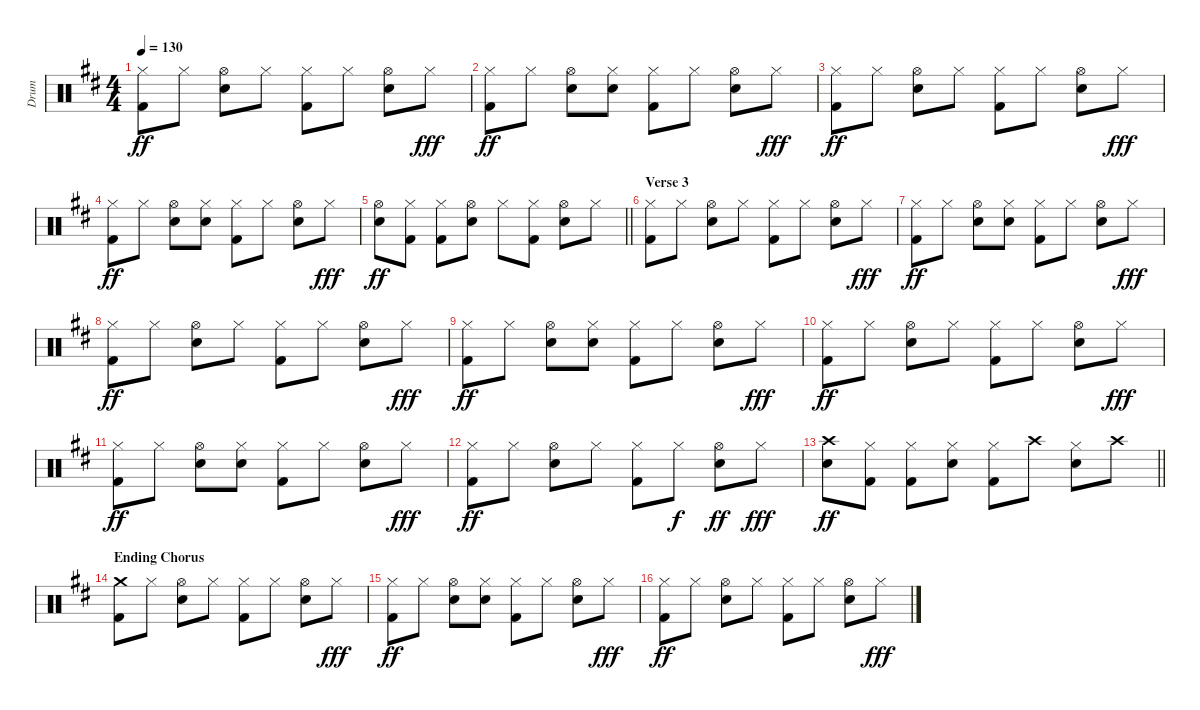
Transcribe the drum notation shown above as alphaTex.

\track ("Drum" "Drum") {instrument percussion}
\staff {score}
\articulation defaults
\ts (4 4)
\tempo 130
\clef neutral
\ks d
("Hi-Hat (closed)" "Kick (hit) 2").8{dy ff} "Hi-Hat (closed)".8 ("Hi-Hat (open)" "Electric Snare (hit)").8 "Hi-Hat (closed)".8 ("Hi-Hat (closed)" "Kick (hit) 2").8 "Hi-Hat (closed)".8 ("Hi-Hat (open)" "Electric Snare (hit)").8 "Hi-Hat (closed)".8{dy fff} |
("Hi-Hat (closed)" "Kick (hit) 2").8{dy ff} "Hi-Hat (closed)".8 ("Hi-Hat (open)" "Electric Snare (hit)").8 ("Hi-Hat (closed)" "Electric Snare (hit)").8 ("Hi-Hat (closed)" "Kick (hit) 2").8 "Hi-Hat (closed)".8 ("Hi-Hat (open)" "Electric Snare (hit)").8 "Hi-Hat (closed)".8{dy fff} |
("Hi-Hat (closed)" "Kick (hit) 2").8{dy ff} "Hi-Hat (closed)".8 ("Hi-Hat (open)" "Electric Snare (hit)").8 "Hi-Hat (closed)".8 ("Hi-Hat (closed)" "Kick (hit) 2").8 "Hi-Hat (closed)".8 ("Hi-Hat (open)" "Electric Snare (hit)").8 "Hi-Hat (closed)".8{dy fff} |
("Hi-Hat (closed)" "Kick (hit) 2").8{dy ff} "Hi-Hat (closed)".8 ("Hi-Hat (open)" "Electric Snare (hit)").8 ("Hi-Hat (closed)" "Electric Snare (hit)").8 ("Hi-Hat (closed)" "Kick (hit) 2").8 "Hi-Hat (closed)".8 ("Hi-Hat (open)" "Electric Snare (hit)").8 "Hi-Hat (closed)".8{dy fff} |
\barLineRight lightlight
("Hi-Hat (open)" "Electric Snare (hit)").8{dy ff} ("Hi-Hat (closed)" "Kick (hit) 2").8 ("Hi-Hat (closed)" "Kick (hit) 2").8 ("Hi-Hat (open)" "Electric Snare (hit)").8 "Hi-Hat (closed)".8 ("Hi-Hat (closed)" "Kick (hit) 2").8 ("Hi-Hat (open)" "Electric Snare (hit)").8 "Hi-Hat (closed)".8 |
\section ("" "Verse 3")
("Hi-Hat (closed)" "Kick (hit) 2").8 "Hi-Hat (closed)".8 ("Hi-Hat (open)" "Electric Snare (hit)").8 "Hi-Hat (closed)".8 ("Hi-Hat (closed)" "Kick (hit) 2").8 "Hi-Hat (closed)".8 ("Hi-Hat (open)" "Electric Snare (hit)").8 "Hi-Hat (closed)".8{dy fff} |
("Hi-Hat (closed)" "Kick (hit) 2").8{dy ff} "Hi-Hat (closed)".8 ("Hi-Hat (open)" "Electric Snare (hit)").8 ("Hi-Hat (closed)" "Electric Snare (hit)").8 ("Hi-Hat (closed)" "Kick (hit) 2").8 "Hi-Hat (closed)".8 ("Hi-Hat (open)" "Electric Snare (hit)").8 "Hi-Hat (closed)".8{dy fff} |
("Hi-Hat (closed)" "Kick (hit) 2").8{dy ff} "Hi-Hat (closed)".8 ("Hi-Hat (open)" "Electric Snare (hit)").8 "Hi-Hat (closed)".8 ("Hi-Hat (closed)" "Kick (hit) 2").8 "Hi-Hat (closed)".8 ("Hi-Hat (open)" "Electric Snare (hit)").8 "Hi-Hat (closed)".8{dy fff} |
("Hi-Hat (closed)" "Kick (hit) 2").8{dy ff} "Hi-Hat (closed)".8 ("Hi-Hat (open)" "Electric Snare (hit)").8 ("Hi-Hat (closed)" "Electric Snare (hit)").8 ("Hi-Hat (closed)" "Kick (hit) 2").8 "Hi-Hat (closed)".8 ("Hi-Hat (open)" "Electric Snare (hit)").8 "Hi-Hat (closed)".8{dy fff} |
("Hi-Hat (closed)" "Kick (hit) 2").8{dy ff} "Hi-Hat (closed)".8 ("Hi-Hat (open)" "Electric Snare (hit)").8 "Hi-Hat (closed)".8 ("Hi-Hat (closed)" "Kick (hit) 2").8 "Hi-Hat (closed)".8 ("Hi-Hat (open)" "Electric Snare (hit)").8 "Hi-Hat (closed)".8{dy fff} |
("Hi-Hat (closed)" "Kick (hit) 2").8{dy ff} "Hi-Hat (closed)".8 ("Hi-Hat (open)" "Electric Snare (hit)").8 ("Hi-Hat (closed)" "Electric Snare (hit)").8 ("Hi-Hat (closed)" "Kick (hit) 2").8 "Hi-Hat (closed)".8 ("Hi-Hat (open)" "Electric Snare (hit)").8 "Hi-Hat (closed)".8{dy fff} |
("Hi-Hat (closed)" "Kick (hit) 2").8{dy ff} "Hi-Hat (closed)".8 ("Hi-Hat (open)" "Electric Snare (hit)").8 "Hi-Hat (closed)".8 ("Hi-Hat (closed)" "Kick (hit) 2").8 "Hi-Hat (closed)".8{dy f} ("Hi-Hat (open)" "Electric Snare (hit)").8{dy ff} "Hi-Hat (closed)".8{dy fff} |
\barLineRight lightlight
("Crash high (hit)" "Electric Snare (hit)").8{dy ff} ("Hi-Hat (closed)" "Kick (hit) 2").8 ("Hi-Hat (closed)" "Kick (hit) 2").8 ("Hi-Hat (closed)" "Electric Snare (hit)").8 ("Hi-Hat (closed)" "Kick (hit) 2").8 "Crash high (hit)".8 ("Hi-Hat (closed)" "Electric Snare (hit)").8 "Crash high (hit)".8 |
\section ("" "Ending Chorus")
("Crash medium (hit)" "Kick (hit) 2").8 "Hi-Hat (closed)".8 ("Hi-Hat (open)" "Electric Snare (hit)").8 "Hi-Hat (closed)".8 ("Hi-Hat (closed)" "Kick (hit) 2").8 "Hi-Hat (closed)".8 ("Hi-Hat (open)" "Electric Snare (hit)").8 "Hi-Hat (closed)".8{dy fff} |
("Hi-Hat (closed)" "Kick (hit) 2").8{dy ff} "Hi-Hat (closed)".8 ("Hi-Hat (open)" "Electric Snare (hit)").8 ("Hi-Hat (closed)" "Electric Snare (hit)").8 ("Hi-Hat (closed)" "Kick (hit) 2").8 "Hi-Hat (closed)".8 ("Hi-Hat (open)" "Electric Snare (hit)").8 "Hi-Hat (closed)".8{dy fff} |
("Hi-Hat (closed)" "Kick (hit) 2").8{dy ff} "Hi-Hat (closed)".8 ("Hi-Hat (open)" "Electric Snare (hit)").8 "Hi-Hat (closed)".8 ("Hi-Hat (closed)" "Kick (hit) 2").8 "Hi-Hat (closed)".8 ("Hi-Hat (open)" "Electric Snare (hit)").8 "Hi-Hat (closed)".8{dy fff}
